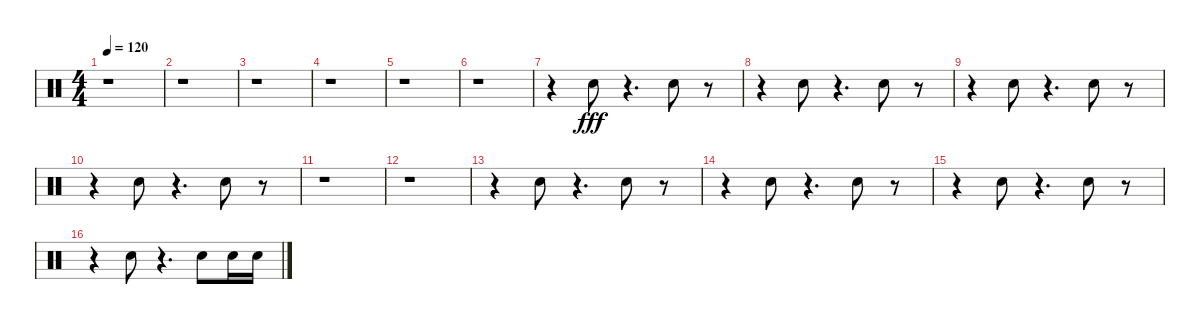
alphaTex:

\track "" {instrument percussion}
\staff {score}
\articulation defaults
\ts (4 4)
\tempo 120
\clef neutral
\ks c
r.1{dy fff} |
r.1 |
r.1 |
r.1 |
r.1 |
r.1 |
r.4 "Hand Clap (hit)".8 r.4{d} "Hand Clap (hit)".8 r.8 |
r.4 "Hand Clap (hit)".8 r.4{d} "Hand Clap (hit)".8 r.8 |
r.4 "Hand Clap (hit)".8 r.4{d} "Hand Clap (hit)".8 r.8 |
r.4 "Hand Clap (hit)".8 r.4{d} "Hand Clap (hit)".8 r.8 |
r.1 |
r.1 |
r.4 "Hand Clap (hit)".8 r.4{d} "Hand Clap (hit)".8 r.8 |
r.4 "Hand Clap (hit)".8 r.4{d} "Hand Clap (hit)".8 r.8 |
r.4 "Hand Clap (hit)".8 r.4{d} "Hand Clap (hit)".8 r.8 |
r.4 "Hand Clap (hit)".8 r.4{d} "Hand Clap (hit)".8 "Hand Clap (hit)".16 "Hand Clap (hit)".16
